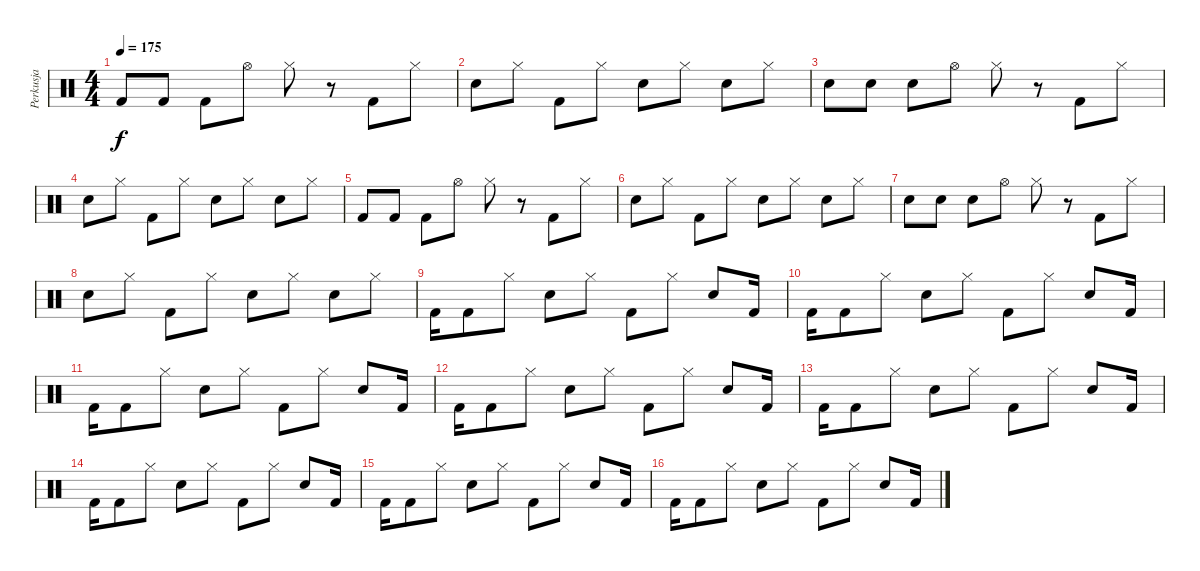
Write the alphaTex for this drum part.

\track ("Perkusja" "Perkusja") {instrument percussion}
\staff {score}
\articulation defaults
\ts (4 4)
\tempo 175
\clef neutral
\ks c "Kick (hit) 2".8{dy f} "Kick (hit) 2".8 "Kick (hit) 2".8 "Hi-Hat (open)".8 "Hi-Hat (closed)".8
r.8 "Kick (hit) 2".8 "Hi-Hat (closed)".8 |
"Snare (hit) 2".8 "Hi-Hat (closed)".8 "Kick (hit) 2".8 "Hi-Hat (closed)".8 "Snare (hit) 2".8 "Hi-Hat (closed)".8 "Snare (hit) 2".8 "Hi-Hat (closed)".8 |
"Snare (hit) 2".8 "Snare (hit) 2".8 "Snare (hit) 2".8 "Hi-Hat (open)".8 "Hi-Hat (closed)".8 r.8 "Kick (hit) 2".8 "Hi-Hat (closed)".8 |
"Snare (hit) 2".8 "Hi-Hat (closed)".8 "Kick (hit) 2".8 "Hi-Hat (closed)".8 "Snare (hit) 2".8 "Hi-Hat (closed)".8 "Snare (hit) 2".8 "Hi-Hat (closed)".8 |
"Kick (hit) 2".8 "Kick (hit) 2".8 "Kick (hit) 2".8 "Hi-Hat (open)".8 "Hi-Hat (closed)".8 r.8 "Kick (hit) 2".8 "Hi-Hat (closed)".8 |
"Snare (hit) 2".8 "Hi-Hat (closed)".8 "Kick (hit) 2".8 "Hi-Hat (closed)".8 "Snare (hit) 2".8 "Hi-Hat (closed)".8 "Snare (hit) 2".8 "Hi-Hat (closed)".8 |
"Snare (hit) 2".8 "Snare (hit) 2".8 "Snare (hit) 2".8 "Hi-Hat (open)".8 "Hi-Hat (closed)".8 r.8 "Kick (hit) 2".8 "Hi-Hat (closed)".8 |
"Snare (hit) 2".8 "Hi-Hat (closed)".8 "Kick (hit) 2".8 "Hi-Hat (closed)".8 "Snare (hit) 2".8 "Hi-Hat (closed)".8 "Snare (hit) 2".8 "Hi-Hat (closed)".8 |
"Kick (hit) 2".16 "Kick (hit) 2".8 "Hi-Hat (closed)".8 "Snare (hit) 2".8 "Hi-Hat (closed)".8 "Kick (hit) 2".8 "Hi-Hat (closed)".8 "Snare (hit) 2".8 "Kick (hit) 2".16 |
"Kick (hit) 2".16 "Kick (hit) 2".8 "Hi-Hat (closed)".8 "Snare (hit) 2".8 "Hi-Hat (closed)".8 "Kick (hit) 2".8 "Hi-Hat (closed)".8 "Snare (hit) 2".8 "Kick (hit) 2".16 |
"Kick (hit) 2".16 "Kick (hit) 2".8 "Hi-Hat (closed)".8 "Snare (hit) 2".8 "Hi-Hat (closed)".8 "Kick (hit) 2".8 "Hi-Hat (closed)".8 "Snare (hit) 2".8 "Kick (hit) 2".16 |
"Kick (hit) 2".16 "Kick (hit) 2".8 "Hi-Hat (closed)".8 "Snare (hit) 2".8 "Hi-Hat (closed)".8 "Kick (hit) 2".8 "Hi-Hat (closed)".8 "Snare (hit) 2".8 "Kick (hit) 2".16 |
"Kick (hit) 2".16 "Kick (hit) 2".8 "Hi-Hat (closed)".8 "Snare (hit) 2".8 "Hi-Hat (closed)".8 "Kick (hit) 2".8 "Hi-Hat (closed)".8 "Snare (hit) 2".8 "Kick (hit) 2".16 |
"Kick (hit) 2".16 "Kick (hit) 2".8 "Hi-Hat (closed)".8 "Snare (hit) 2".8 "Hi-Hat (closed)".8 "Kick (hit) 2".8 "Hi-Hat (closed)".8 "Snare (hit) 2".8 "Kick (hit) 2".16 |
"Kick (hit) 2".16 "Kick (hit) 2".8 "Hi-Hat (closed)".8 "Snare (hit) 2".8 "Hi-Hat (closed)".8 "Kick (hit) 2".8 "Hi-Hat (closed)".8 "Snare (hit) 2".8 "Kick (hit) 2".16 |
"Kick (hit) 2".16 "Kick (hit) 2".8 "Hi-Hat (closed)".8 "Snare (hit) 2".8 "Hi-Hat (closed)".8 "Kick (hit) 2".8 "Hi-Hat (closed)".8 "Snare (hit) 2".8 "Kick (hit) 2".16
